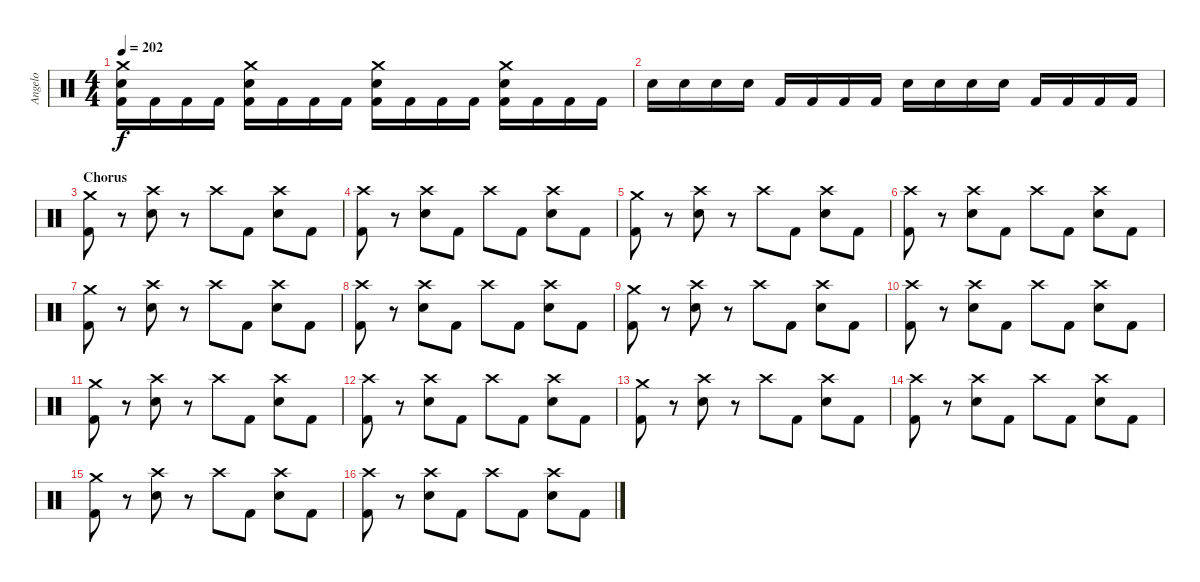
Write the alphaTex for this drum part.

\track ("Angelo" "Angelo") {instrument percussion}
\staff {score}
\articulation defaults
\ts (4 4)
\tempo 202
\clef neutral
\ks c
("Crash medium (hit)" "Electric Snare (hit)" "Kick (hit) 2").16{dy f} "Kick (hit) 2".16 "Kick (hit) 2".16 "Kick (hit) 2".16 ("Crash medium (hit)" "Electric Snare (hit)" "Kick (hit) 2").16 "Kick (hit) 2".16 "Kick (hit) 2".16 "Kick (hit) 2".16 ("Crash medium (hit)" "Electric Snare (hit)" "Kick (hit) 2").16 "Kick (hit) 2".16 "Kick (hit) 2".16 "Kick (hit) 2".16 ("Crash medium (hit)" "Electric Snare (hit)" "Kick (hit) 2").16 "Kick (hit) 2".16 "Kick (hit) 2".16 "Kick (hit) 2".16 |
"Electric Snare (hit)".16 "Electric Snare (hit)".16 "Electric Snare (hit)".16 "Electric Snare (hit)".16 "Kick (hit) 2".16 "Kick (hit) 2".16 "Kick (hit) 2".16 "Kick (hit) 2".16 "Electric Snare (hit)".16 "Electric Snare (hit)".16 "Electric Snare (hit)".16 "Electric Snare (hit)".16 "Kick (hit) 2".16 "Kick (hit) 2".16 "Kick (hit) 2".16 "Kick (hit) 2".16 |
\section ("" "Chorus")
("Crash medium (hit)" "Kick (hit) 2").8 r.8 ("Crash high (hit)" "Electric Snare (hit)").8 r.8 "Crash high (hit)".8 "Kick (hit) 2".8 ("Crash high (hit)" "Electric Snare (hit)").8 "Kick (hit) 2".8 |
("Crash high (hit)" "Kick (hit) 2").8 r.8 ("Crash high (hit)" "Electric Snare (hit)").8 "Kick (hit) 2".8 "Crash high (hit)".8 "Kick (hit) 2".8 ("Crash high (hit)" "Electric Snare (hit)").8 "Kick (hit) 2".8 |
("Crash medium (hit)" "Kick (hit) 2").8 r.8 ("Crash high (hit)" "Electric Snare (hit)").8 r.8 "Crash high (hit)".8 "Kick (hit) 2".8 ("Crash high (hit)" "Electric Snare (hit)").8 "Kick (hit) 2".8 |
("Crash high (hit)" "Kick (hit) 2").8 r.8 ("Crash high (hit)" "Electric Snare (hit)").8 "Kick (hit) 2".8 "Crash high (hit)".8 "Kick (hit) 2".8 ("Crash high (hit)" "Electric Snare (hit)").8 "Kick (hit) 2".8 |
("Crash medium (hit)" "Kick (hit) 2").8 r.8 ("Crash high (hit)" "Electric Snare (hit)").8 r.8 "Crash high (hit)".8 "Kick (hit) 2".8 ("Crash high (hit)" "Electric Snare (hit)").8 "Kick (hit) 2".8 |
("Crash high (hit)" "Kick (hit) 2").8 r.8 ("Crash high (hit)" "Electric Snare (hit)").8 "Kick (hit) 2".8 "Crash high (hit)".8 "Kick (hit) 2".8 ("Crash high (hit)" "Electric Snare (hit)").8 "Kick (hit) 2".8 |
("Crash medium (hit)" "Kick (hit) 2").8 r.8 ("Crash high (hit)" "Electric Snare (hit)").8 r.8 "Crash high (hit)".8 "Kick (hit) 2".8 ("Crash high (hit)" "Electric Snare (hit)").8 "Kick (hit) 2".8 |
("Crash high (hit)" "Kick (hit) 2").8 r.8 ("Crash high (hit)" "Electric Snare (hit)").8 "Kick (hit) 2".8 "Crash high (hit)".8 "Kick (hit) 2".8 ("Crash high (hit)" "Electric Snare (hit)").8 "Kick (hit) 2".8 |
("Crash medium (hit)" "Kick (hit) 2").8 r.8 ("Crash high (hit)" "Electric Snare (hit)").8 r.8 "Crash high (hit)".8 "Kick (hit) 2".8 ("Crash high (hit)" "Electric Snare (hit)").8 "Kick (hit) 2".8 |
("Crash high (hit)" "Kick (hit) 2").8 r.8 ("Crash high (hit)" "Electric Snare (hit)").8 "Kick (hit) 2".8 "Crash high (hit)".8 "Kick (hit) 2".8 ("Crash high (hit)" "Electric Snare (hit)").8 "Kick (hit) 2".8 |
("Crash medium (hit)" "Kick (hit) 2").8 r.8 ("Crash high (hit)" "Electric Snare (hit)").8 r.8 "Crash high (hit)".8 "Kick (hit) 2".8 ("Crash high (hit)" "Electric Snare (hit)").8 "Kick (hit) 2".8 |
("Crash high (hit)" "Kick (hit) 2").8 r.8 ("Crash high (hit)" "Electric Snare (hit)").8 "Kick (hit) 2".8 "Crash high (hit)".8 "Kick (hit) 2".8 ("Crash high (hit)" "Electric Snare (hit)").8 "Kick (hit) 2".8 |
("Crash medium (hit)" "Kick (hit) 2").8 r.8 ("Crash high (hit)" "Electric Snare (hit)").8 r.8 "Crash high (hit)".8 "Kick (hit) 2".8 ("Crash high (hit)" "Electric Snare (hit)").8 "Kick (hit) 2".8 |
("Crash high (hit)" "Kick (hit) 2").8 r.8 ("Crash high (hit)" "Electric Snare (hit)").8 "Kick (hit) 2".8 "Crash high (hit)".8 "Kick (hit) 2".8 ("Crash high (hit)" "Electric Snare (hit)").8 "Kick (hit) 2".8
